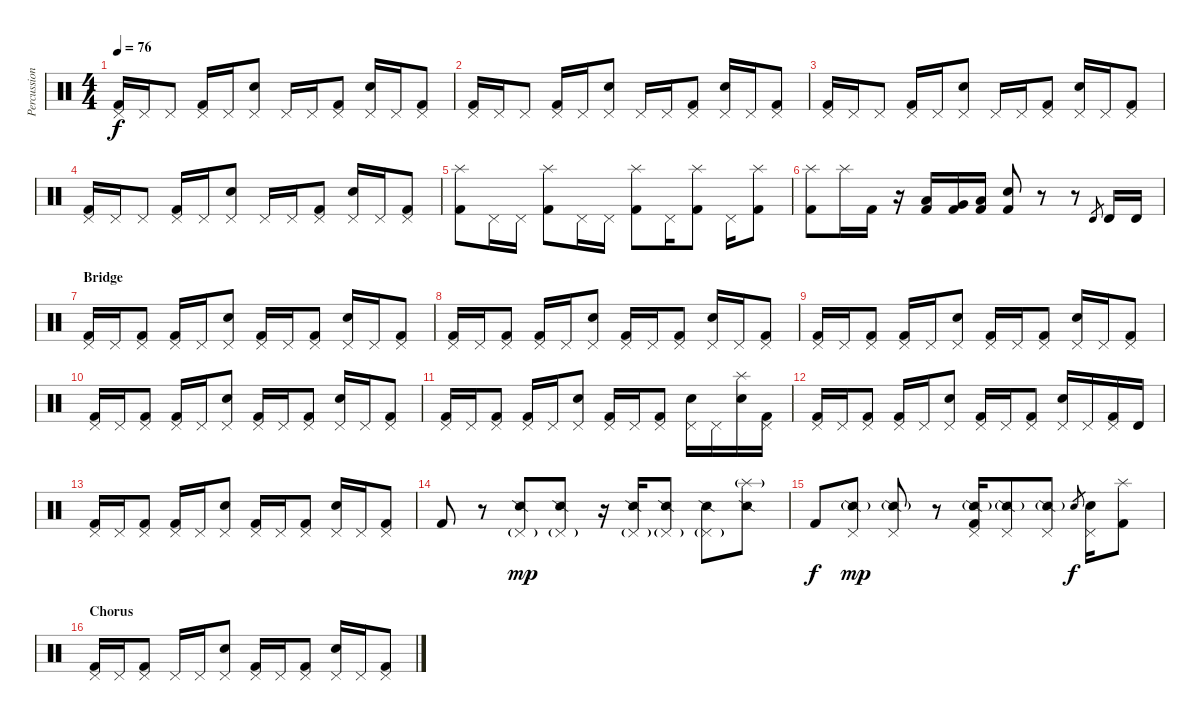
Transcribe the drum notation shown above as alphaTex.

\track ("Percussion" "Percussion") {instrument percussion}
\staff {score}
\articulation defaults
\ts (4 4)
\tempo 76
\clef neutral
\ks c
("Pedal Hi-Hat (hit)" "Kick (hit) 2").16{dy f} "Pedal Hi-Hat (hit)".16 "Pedal Hi-Hat (hit)".8 ("Pedal Hi-Hat (hit)" "Kick (hit) 2").16 "Pedal Hi-Hat (hit)".16 ("Pedal Hi-Hat (hit)" "Electric Snare (hit)").8 "Pedal Hi-Hat (hit)".16 "Pedal Hi-Hat (hit)".16 ("Pedal Hi-Hat (hit)" "Kick (hit) 2").8 ("Pedal Hi-Hat (hit)" "Electric Snare (hit)").16 "Pedal Hi-Hat (hit)".16 ("Pedal Hi-Hat (hit)" "Kick (hit) 2").8 |
("Pedal Hi-Hat (hit)" "Kick (hit) 2").16 "Pedal Hi-Hat (hit)".16 "Pedal Hi-Hat (hit)".8 ("Pedal Hi-Hat (hit)" "Kick (hit) 2").16 "Pedal Hi-Hat (hit)".16 ("Pedal Hi-Hat (hit)" "Electric Snare (hit)").8 "Pedal Hi-Hat (hit)".16 "Pedal Hi-Hat (hit)".16 ("Pedal Hi-Hat (hit)" "Kick (hit) 2").8 ("Pedal Hi-Hat (hit)" "Electric Snare (hit)").16 "Pedal Hi-Hat (hit)".16 ("Pedal Hi-Hat (hit)" "Kick (hit) 2").8 |
("Pedal Hi-Hat (hit)" "Kick (hit) 2").16 "Pedal Hi-Hat (hit)".16 "Pedal Hi-Hat (hit)".8 ("Pedal Hi-Hat (hit)" "Kick (hit) 2").16 "Pedal Hi-Hat (hit)".16 ("Pedal Hi-Hat (hit)" "Electric Snare (hit)").8 "Pedal Hi-Hat (hit)".16 "Pedal Hi-Hat (hit)".16 ("Pedal Hi-Hat (hit)" "Kick (hit) 2").8 ("Pedal Hi-Hat (hit)" "Electric Snare (hit)").16 "Pedal Hi-Hat (hit)".16 ("Pedal Hi-Hat (hit)" "Kick (hit) 2").8 |
("Pedal Hi-Hat (hit)" "Kick (hit) 2").16 "Pedal Hi-Hat (hit)".16 "Pedal Hi-Hat (hit)".8 ("Pedal Hi-Hat (hit)" "Kick (hit) 2").16 "Pedal Hi-Hat (hit)".16 ("Pedal Hi-Hat (hit)" "Electric Snare (hit)").8 "Pedal Hi-Hat (hit)".16 "Pedal Hi-Hat (hit)".16 ("Pedal Hi-Hat (hit)" "Kick (hit) 2").8 ("Pedal Hi-Hat (hit)" "Electric Snare (hit)").16 "Pedal Hi-Hat (hit)".16 ("Pedal Hi-Hat (hit)" "Kick (hit) 2").8 |
("Splash (hit)" "Kick (hit) 2").8 "Pedal Hi-Hat (hit)".16 "Pedal Hi-Hat (hit)".16 ("Splash (hit)" "Kick (hit) 2").8 "Pedal Hi-Hat (hit)".16 "Pedal Hi-Hat (hit)".16 ("Splash (hit)" "Kick (hit) 2").8 "Pedal Hi-Hat (hit)".16 ("Splash (hit)" "Kick (hit) 2").8 "Pedal Hi-Hat (hit)".16 ("Splash (hit)" "Kick (hit) 2").8 |
("Splash (hit)" "Kick (hit) 2").8 "Splash (hit)".16 "Kick (hit) 2".16 r.16 ("Low Tom (hit)" "Kick (hit) 2").16 ("Very Low Tom (hit)" "Kick (hit) 2").16 ("Low Floor Tom (hit)" "Kick (hit) 2").16 ("Electric Snare (hit)" "Kick (hit) 2").8 r.8 r.8 "Timbale high (hit)".8{gr} "Timbale high (hit)".16 "Timbale high (hit)".16 |
\section ("" "Bridge")
("Pedal Hi-Hat (hit)" "Kick (hit) 2").16 "Pedal Hi-Hat (hit)".16 ("Pedal Hi-Hat (hit)" "Kick (hit) 2").8 ("Pedal Hi-Hat (hit)" "Kick (hit) 2").16 "Pedal Hi-Hat (hit)".16 ("Pedal Hi-Hat (hit)" "Electric Snare (hit)").8 ("Pedal Hi-Hat (hit)" "Kick (hit) 2").16 "Pedal Hi-Hat (hit)".16 ("Pedal Hi-Hat (hit)" "Kick (hit) 2").8 ("Pedal Hi-Hat (hit)" "Electric Snare (hit)").16 "Pedal Hi-Hat (hit)".16 ("Pedal Hi-Hat (hit)" "Kick (hit) 2").8 |
("Pedal Hi-Hat (hit)" "Kick (hit) 2").16 "Pedal Hi-Hat (hit)".16 ("Pedal Hi-Hat (hit)" "Kick (hit) 2").8 ("Pedal Hi-Hat (hit)" "Kick (hit) 2").16 "Pedal Hi-Hat (hit)".16 ("Pedal Hi-Hat (hit)" "Electric Snare (hit)").8 ("Pedal Hi-Hat (hit)" "Kick (hit) 2").16 "Pedal Hi-Hat (hit)".16 ("Pedal Hi-Hat (hit)" "Kick (hit) 2").8 ("Pedal Hi-Hat (hit)" "Electric Snare (hit)").16 "Pedal Hi-Hat (hit)".16 ("Pedal Hi-Hat (hit)" "Kick (hit) 2").8 |
("Pedal Hi-Hat (hit)" "Kick (hit) 2").16 "Pedal Hi-Hat (hit)".16 ("Pedal Hi-Hat (hit)" "Kick (hit) 2").8 ("Pedal Hi-Hat (hit)" "Kick (hit) 2").16 "Pedal Hi-Hat (hit)".16 ("Pedal Hi-Hat (hit)" "Electric Snare (hit)").8 ("Pedal Hi-Hat (hit)" "Kick (hit) 2").16 "Pedal Hi-Hat (hit)".16 ("Pedal Hi-Hat (hit)" "Kick (hit) 2").8 ("Pedal Hi-Hat (hit)" "Electric Snare (hit)").16 "Pedal Hi-Hat (hit)".16 ("Pedal Hi-Hat (hit)" "Kick (hit) 2").8 |
("Pedal Hi-Hat (hit)" "Kick (hit) 2").16 "Pedal Hi-Hat (hit)".16 ("Pedal Hi-Hat (hit)" "Kick (hit) 2").8 ("Pedal Hi-Hat (hit)" "Kick (hit) 2").16 "Pedal Hi-Hat (hit)".16 ("Pedal Hi-Hat (hit)" "Electric Snare (hit)").8 ("Pedal Hi-Hat (hit)" "Kick (hit) 2").16 "Pedal Hi-Hat (hit)".16 ("Pedal Hi-Hat (hit)" "Kick (hit) 2").8 ("Pedal Hi-Hat (hit)" "Electric Snare (hit)").16 "Pedal Hi-Hat (hit)".16 ("Pedal Hi-Hat (hit)" "Kick (hit) 2").8 |
("Pedal Hi-Hat (hit)" "Kick (hit) 2").16 "Pedal Hi-Hat (hit)".16 ("Pedal Hi-Hat (hit)" "Kick (hit) 2").8 ("Pedal Hi-Hat (hit)" "Kick (hit) 2").16 "Pedal Hi-Hat (hit)".16 ("Pedal Hi-Hat (hit)" "Electric Snare (hit)").8 ("Pedal Hi-Hat (hit)" "Kick (hit) 2").16 "Pedal Hi-Hat (hit)".16 ("Pedal Hi-Hat (hit)" "Kick (hit) 2").8 ("Pedal Hi-Hat (hit)" "Electric Snare (hit)").16 "Pedal Hi-Hat (hit)".16 ("Splash (hit)" "Electric Snare (hit)").16 ("Pedal Hi-Hat (hit)" "Kick (hit) 2").16 |
("Pedal Hi-Hat (hit)" "Kick (hit) 2").16 "Pedal Hi-Hat (hit)".16 ("Pedal Hi-Hat (hit)" "Kick (hit) 2").8 ("Pedal Hi-Hat (hit)" "Kick (hit) 2").16 "Pedal Hi-Hat (hit)".16 ("Pedal Hi-Hat (hit)" "Electric Snare (hit)").8 ("Pedal Hi-Hat (hit)" "Kick (hit) 2").16 "Pedal Hi-Hat (hit)".16 ("Pedal Hi-Hat (hit)" "Kick (hit) 2").8 ("Pedal Hi-Hat (hit)" "Electric Snare (hit)").16 "Pedal Hi-Hat (hit)".16 ("Pedal Hi-Hat (hit)" "Kick (hit) 2").16 "Timbale high (hit)".16 |
("Pedal Hi-Hat (hit)" "Kick (hit) 2").16 "Pedal Hi-Hat (hit)".16 ("Pedal Hi-Hat (hit)" "Kick (hit) 2").8 ("Pedal Hi-Hat (hit)" "Kick (hit) 2").16 "Pedal Hi-Hat (hit)".16 ("Pedal Hi-Hat (hit)" "Electric Snare (hit)").8 ("Pedal Hi-Hat (hit)" "Kick (hit) 2").16 "Pedal Hi-Hat (hit)".16 ("Pedal Hi-Hat (hit)" "Kick (hit) 2").8 ("Pedal Hi-Hat (hit)" "Electric Snare (hit)").16 "Pedal Hi-Hat (hit)".16 ("Pedal Hi-Hat (hit)" "Kick (hit) 2").8 |
"Kick (hit) 2".8 r.8 ("Pedal Hi-Hat (hit)"{g} "Snare (side stick) 2").8{dy mp} ("Pedal Hi-Hat (hit)"{g} "Snare (side stick) 2").8 r.16 ("Pedal Hi-Hat (hit)"{g} "Snare (side stick) 2").16 ("Pedal Hi-Hat (hit)"{g} "Snare (side stick) 2").8 ("Pedal Hi-Hat (hit)"{g} "Snare (side stick) 2").8 ("Splash (hit)"{g} "Snare (side stick) 2").8 |
"Kick (hit) 2".8{dy f} ("Pedal Hi-Hat (hit)" "Snare (side stick) 2"{g}).8{dy mp} ("Pedal Hi-Hat (hit)" "Snare (side stick) 2"{g}).8 r.8 ("Pedal Hi-Hat (hit)" "Snare (side stick) 2"{g} "Kick (hit) 2").16 ("Pedal Hi-Hat (hit)" "Snare (side stick) 2"{g}).8 ("Pedal Hi-Hat (hit)" "Snare (side stick) 2"{g}).8 "Electric Snare (hit)".8{gr dy f} ("Pedal Hi-Hat (hit)" "Electric Snare (hit)").16 ("Splash (hit)" "Kick (hit) 2").8 |
\section ("" "Chorus")
("Pedal Hi-Hat (hit)" "Kick (hit) 2").16 "Pedal Hi-Hat (hit)".16 ("Pedal Hi-Hat (hit)" "Kick (hit) 2").8 "Pedal Hi-Hat (hit)".16 "Pedal Hi-Hat (hit)".16 ("Pedal Hi-Hat (hit)" "Electric Snare (hit)").8 ("Pedal Hi-Hat (hit)" "Kick (hit) 2").16 "Pedal Hi-Hat (hit)".16 ("Pedal Hi-Hat (hit)" "Kick (hit) 2").8 ("Pedal Hi-Hat (hit)" "Electric Snare (hit)").16 "Pedal Hi-Hat (hit)".16 ("Pedal Hi-Hat (hit)" "Kick (hit) 2").8
